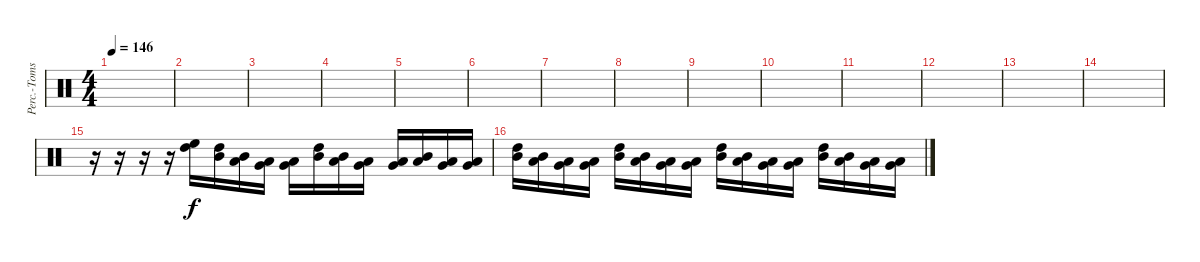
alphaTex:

\track ("Perc.-Toms 1" "Perc.-Toms") {instrument percussion}
\staff {score}
\articulation defaults
\ts (4 4)
\tempo 146
\clef neutral
\ks c
|
|
|
|
|
|
|
|
|
|
|
|
|
|
r.16 r.16 r.16 r.16 ("High Floor Tom (hit)" "High Tom (hit)").16 ("High Tom (hit)" "Mid Tom (hit)").16 ("Mid Tom (hit)" "Low Tom (hit)").16 ("Low Tom (hit)" "Very Low Tom (hit)").16 ("Very Low Tom (hit)" "Low Floor Tom (hit)").16 ("High Tom (hit)" "Mid Tom (hit)").16 ("Mid Tom (hit)" "Low Tom (hit)").16 ("Low Tom (hit)" "Very Low Tom (hit)").16 ("Very Low Tom (hit)" "Low Floor Tom (hit)").16 ("Mid Tom (hit)" "Low Tom (hit)").16 ("Low Tom (hit)" "Very Low Tom (hit)").16 ("Very Low Tom (hit)" "Low Floor Tom (hit)").16 |
("High Tom (hit)" "Mid Tom (hit)").16 ("Mid Tom (hit)" "Low Tom (hit)").16 ("Low Tom (hit)" "Very Low Tom (hit)").16 ("Very Low Tom (hit)" "Low Floor Tom (hit)").16 ("High Tom (hit)" "Mid Tom (hit)").16 ("Mid Tom (hit)" "Low Tom (hit)").16 ("Low Tom (hit)" "Very Low Tom (hit)").16 ("Very Low Tom (hit)" "Low Floor Tom (hit)").16 ("High Tom (hit)" "Mid Tom (hit)").16 ("Mid Tom (hit)" "Low Tom (hit)").16 ("Low Tom (hit)" "Very Low Tom (hit)").16 ("Very Low Tom (hit)" "Low Floor Tom (hit)").16 ("High Tom (hit)" "Mid Tom (hit)").16 ("Mid Tom (hit)" "Low Tom (hit)").16 ("Low Tom (hit)" "Very Low Tom (hit)").16 ("Very Low Tom (hit)" "Low Floor Tom (hit)").16
